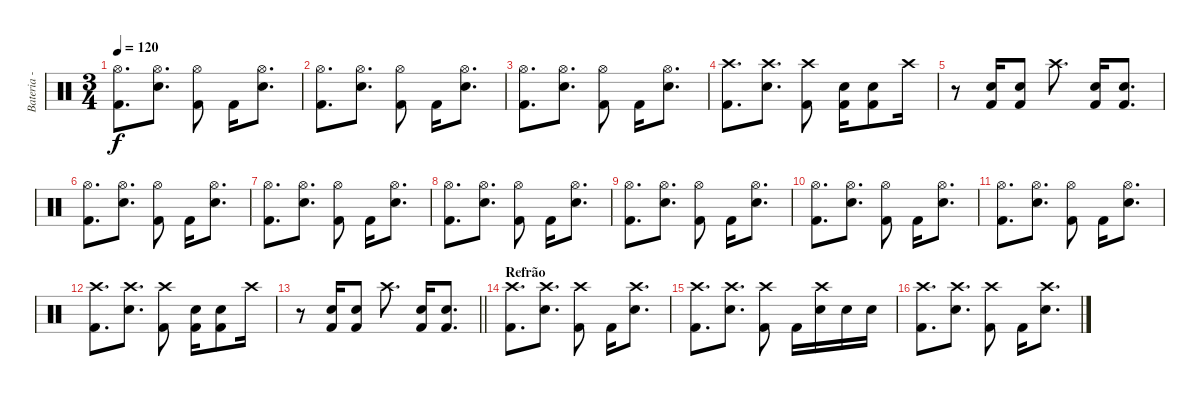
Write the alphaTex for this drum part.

\track ("Bateria - Larzon" "Bateria - ") {instrument percussion}
\staff {score}
\articulation defaults
\ts (3 4)
\tempo 120
\clef neutral
\ks c
("Kick (hit) 2" "Hi-Hat (open)").8{d dy f} ("Snare (hit) 2" "Hi-Hat (open)").8{d} ("Kick (hit) 2" "Hi-Hat (open)").8 "Kick (hit) 2".16 ("Snare (hit) 2" "Hi-Hat (open)").8{d} |
("Kick (hit) 2" "Hi-Hat (open)").8{d} ("Snare (hit) 2" "Hi-Hat (open)").8{d} ("Kick (hit) 2" "Hi-Hat (open)").8 "Kick (hit) 2".16 ("Snare (hit) 2" "Hi-Hat (open)").8{d} |
("Kick (hit) 2" "Hi-Hat (open)").8{d} ("Snare (hit) 2" "Hi-Hat (open)").8{d} ("Kick (hit) 2" "Hi-Hat (open)").8 "Kick (hit) 2".16 ("Snare (hit) 2" "Hi-Hat (open)").8{d} |
("Kick (hit) 2" "Crash high (hit)").8{d} ("Snare (hit) 2" "Crash high (hit)").8{d} ("Kick (hit) 2" "Crash high (hit)").8 ("Snare (hit) 2" "Kick (hit) 2").16 ("Snare (hit) 2" "Kick (hit) 2").8 "Crash high (hit)".16 |
r.8 ("Snare (hit) 2" "Kick (hit) 2").16 ("Snare (hit) 2" "Kick (hit) 2").8 "Crash high (hit)".8{d} ("Snare (hit) 2" "Kick (hit) 2").16 ("Snare (hit) 2" "Kick (hit) 2").8{d} |
("Kick (hit) 2" "Hi-Hat (open)").8{d} ("Snare (hit) 2" "Hi-Hat (open)").8{d} ("Kick (hit) 2" "Hi-Hat (open)").8 "Kick (hit) 2".16 ("Snare (hit) 2" "Hi-Hat (open)").8{d} |
("Kick (hit) 2" "Hi-Hat (open)").8{d} ("Snare (hit) 2" "Hi-Hat (open)").8{d} ("Kick (hit) 2" "Hi-Hat (open)").8 "Kick (hit) 2".16 ("Snare (hit) 2" "Hi-Hat (open)").8{d} |
("Kick (hit) 2" "Hi-Hat (open)").8{d} ("Snare (hit) 2" "Hi-Hat (open)").8{d} ("Kick (hit) 2" "Hi-Hat (open)").8 "Kick (hit) 2".16 ("Snare (hit) 2" "Hi-Hat (open)").8{d} |
("Kick (hit) 2" "Hi-Hat (open)").8{d} ("Snare (hit) 2" "Hi-Hat (open)").8{d} ("Kick (hit) 2" "Hi-Hat (open)").8 "Kick (hit) 2".16 ("Snare (hit) 2" "Hi-Hat (open)").8{d} |
("Kick (hit) 2" "Hi-Hat (open)").8{d} ("Snare (hit) 2" "Hi-Hat (open)").8{d} ("Kick (hit) 2" "Hi-Hat (open)").8 "Kick (hit) 2".16 ("Snare (hit) 2" "Hi-Hat (open)").8{d} |
("Kick (hit) 2" "Hi-Hat (open)").8{d} ("Snare (hit) 2" "Hi-Hat (open)").8{d} ("Kick (hit) 2" "Hi-Hat (open)").8 "Kick (hit) 2".16 ("Snare (hit) 2" "Hi-Hat (open)").8{d} |
("Kick (hit) 2" "Crash high (hit)").8{d} ("Snare (hit) 2" "Crash high (hit)").8{d} ("Kick (hit) 2" "Crash high (hit)").8 ("Snare (hit) 2" "Kick (hit) 2").16 ("Snare (hit) 2" "Kick (hit) 2").8 "Crash high (hit)".16 |
\barLineRight lightlight
r.8 ("Snare (hit) 2" "Kick (hit) 2").16 ("Snare (hit) 2" "Kick (hit) 2").8 "Crash high (hit)".8{d} ("Snare (hit) 2" "Kick (hit) 2").16 ("Snare (hit) 2" "Kick (hit) 2").8{d} |
\section ("" "Refrão")
("Kick (hit) 2" "Crash high (hit)").8{d} ("Snare (hit) 2" "Crash high (hit)").8{d} ("Kick (hit) 2" "Crash high (hit)").8 "Kick (hit) 2".16 ("Snare (hit) 2" "Crash high (hit)").8{d} |
("Kick (hit) 2" "Crash high (hit)").8{d} ("Snare (hit) 2" "Crash high (hit)").8{d} ("Kick (hit) 2" "Crash high (hit)").8 "Kick (hit) 2".16 ("Snare (hit) 2" "Crash high (hit)").16 "Snare (hit) 2".16 "Snare (hit) 2".16 |
("Kick (hit) 2" "Crash high (hit)").8{d} ("Snare (hit) 2" "Crash high (hit)").8{d} ("Kick (hit) 2" "Crash high (hit)").8 "Kick (hit) 2".16 ("Snare (hit) 2" "Crash high (hit)").8{d}
